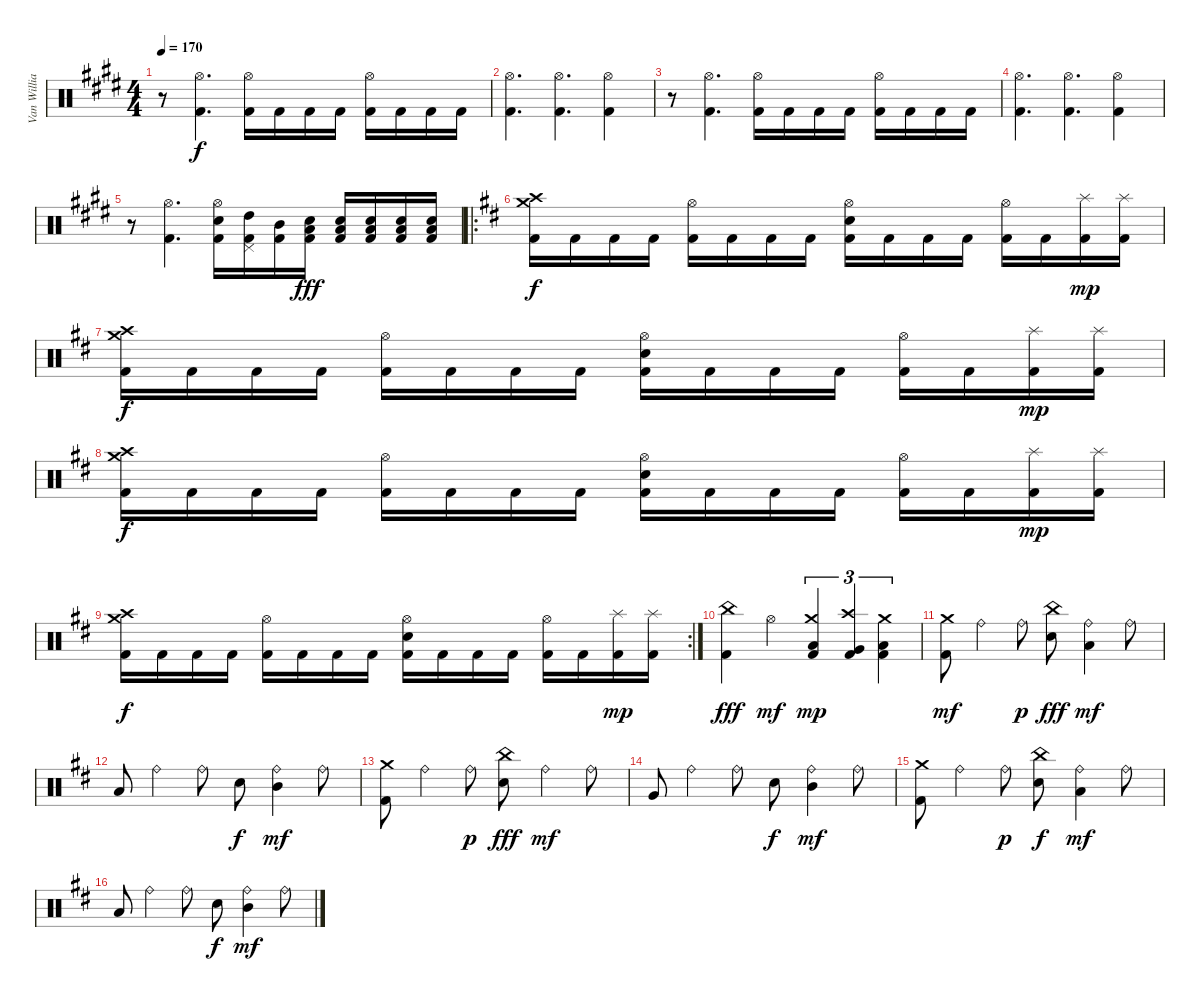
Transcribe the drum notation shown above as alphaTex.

\track ("Van Williams" "Van Willia") {instrument percussion}
\staff {score}
\articulation defaults
\ts (4 4)
\tempo 170
\clef neutral
\ks e
r.8{dy f} ("Hi-Hat (open)" "Kick (hit) 2").4{d} ("Hi-Hat (open)" "Kick (hit) 2").16 "Kick (hit) 2".16 "Kick (hit) 2".16 "Kick (hit) 2".16 ("Hi-Hat (open)" "Kick (hit) 2").16 "Kick (hit) 2".16 "Kick (hit) 2".16 "Kick (hit) 2".16 |
("Hi-Hat (open)" "Kick (hit) 2").4{d} ("Hi-Hat (open)" "Kick (hit) 2").4{d} ("Hi-Hat (open)" "Kick (hit) 2").4 |
r.8 ("Hi-Hat (open)" "Kick (hit) 2").4{d} ("Hi-Hat (open)" "Kick (hit) 2").16 "Kick (hit) 2".16 "Kick (hit) 2".16 "Kick (hit) 2".16 ("Hi-Hat (open)" "Kick (hit) 2").16 "Kick (hit) 2".16 "Kick (hit) 2".16 "Kick (hit) 2".16 |
("Hi-Hat (open)" "Kick (hit) 2").4{d} ("Hi-Hat (open)" "Kick (hit) 2").4{d} ("Hi-Hat (open)" "Kick (hit) 2").4 |
r.8 ("Hi-Hat (open)" "Kick (hit) 2").4{d} ("Hi-Hat (open)" "Electric Snare (hit)" "Kick (hit) 2").16 ("Pedal Hi-Hat (hit)" "High Tom (hit)" "Kick (hit) 2").16 ("Mid Tom (hit)" "Kick (hit) 2").16 ("Electric Snare (hit)" "Low Floor Tom (hit)" "Kick (hit) 2").16{dy fff} ("Electric Snare (hit)" "Low Floor Tom (hit)" "Kick (hit) 2").16 ("Electric Snare (hit)" "Low Floor Tom (hit)" "Kick (hit) 2").16 ("Electric Snare (hit)" "Low Floor Tom (hit)" "Kick (hit) 2").16 ("Electric Snare (hit)" "Low Floor Tom (hit)" "Kick (hit) 2").16 |
\ro
\ks d
("Crash medium (hit)" "Crash high (hit)" "Kick (hit) 2").16{dy f} "Kick (hit) 2".16 "Kick (hit) 2".16 "Kick (hit) 2".16 ("Hi-Hat (open)" "Kick (hit) 2").16 "Kick (hit) 2".16 "Kick (hit) 2".16 "Kick (hit) 2".16 ("Hi-Hat (open)" "Electric Snare (hit)" "Kick (hit) 2").16 "Kick (hit) 2".16 "Kick (hit) 2".16 "Kick (hit) 2".16 ("Hi-Hat (open)" "Kick (hit) 2").16 "Kick (hit) 2".16 ("Splash (hit)" "Kick (hit) 2").16{dy mp} ("Splash (hit)" "Kick (hit) 2").16 |
("Crash medium (hit)" "Crash high (hit)" "Kick (hit) 2").16{dy f} "Kick (hit) 2".16 "Kick (hit) 2".16 "Kick (hit) 2".16 ("Hi-Hat (open)" "Kick (hit) 2").16 "Kick (hit) 2".16 "Kick (hit) 2".16 "Kick (hit) 2".16 ("Hi-Hat (open)" "Electric Snare (hit)" "Kick (hit) 2").16 "Kick (hit) 2".16 "Kick (hit) 2".16 "Kick (hit) 2".16 ("Hi-Hat (open)" "Kick (hit) 2").16 "Kick (hit) 2".16 ("Splash (hit)" "Kick (hit) 2").16{dy mp} ("Splash (hit)" "Kick (hit) 2").16 |
("Crash medium (hit)" "Crash high (hit)" "Kick (hit) 2").16{dy f} "Kick (hit) 2".16 "Kick (hit) 2".16 "Kick (hit) 2".16 ("Hi-Hat (open)" "Kick (hit) 2").16 "Kick (hit) 2".16 "Kick (hit) 2".16 "Kick (hit) 2".16 ("Hi-Hat (open)" "Electric Snare (hit)" "Kick (hit) 2").16 "Kick (hit) 2".16 "Kick (hit) 2".16 "Kick (hit) 2".16 ("Hi-Hat (open)" "Kick (hit) 2").16 "Kick (hit) 2".16 ("Splash (hit)" "Kick (hit) 2").16{dy mp} ("Splash (hit)" "Kick (hit) 2").16 |
\rc 2
("Crash medium (hit)" "Crash high (hit)" "Kick (hit) 2").16{dy f} "Kick (hit) 2".16 "Kick (hit) 2".16 "Kick (hit) 2".16 ("Hi-Hat (open)" "Kick (hit) 2").16 "Kick (hit) 2".16 "Kick (hit) 2".16 "Kick (hit) 2".16 ("Hi-Hat (open)" "Electric Snare (hit)" "Kick (hit) 2").16 "Kick (hit) 2".16 "Kick (hit) 2".16 "Kick (hit) 2".16 ("Hi-Hat (open)" "Kick (hit) 2").16 "Kick (hit) 2".16 ("Splash (hit)" "Kick (hit) 2").16{dy mp} ("Splash (hit)" "Kick (hit) 2").16 |
("China (hit)" "Kick (hit) 2").4{dy fff} "Hi-Hat (open)".4{dy mf} ("Crash medium (hit)" "Low Tom (hit)" "Kick (hit) 2").4{tu (3 2) dy mp} ("Crash high (hit)" "Very Low Tom (hit)" "Kick (hit) 2").4{tu (3 2)} ("Crash medium (hit)" "Low Floor Tom (hit)" "Kick (hit) 2").4{tu (3 2)} |
("Crash medium (hit)" "Kick (hit) 2").8{dy mf} "Ride (bell)".4 "Ride (bell)".8{dy p} ("China (hit)" "Electric Snare (hit)").8{dy fff} ("Ride (bell)" "Low Tom (hit)").4{dy mf} "Ride (bell)".8 |
"Low Tom (hit)".8 "Ride (bell)".4 "Ride (bell)".8 "Electric Snare (hit)".8{dy f} ("Ride (bell)" "Mid Tom (hit)").4{dy mf} "Ride (bell)".8 |
("Crash medium (hit)" "Kick (hit) 2").8 "Ride (bell)".4 "Ride (bell)".8{dy p} ("China (hit)" "Electric Snare (hit)").8{dy fff} "Ride (bell)".4{dy mf} "Ride (bell)".8 |
"Very Low Tom (hit)".8 "Ride (bell)".4 "Ride (bell)".8 "Electric Snare (hit)".8{dy f} ("Ride (bell)" "Mid Tom (hit)").4{dy mf} "Ride (bell)".8 |
("Crash medium (hit)" "Kick (hit) 2").8 "Ride (bell)".4 "Ride (bell)".8{dy p} ("China (hit)" "Electric Snare (hit)").8{dy f} ("Ride (bell)" "Low Tom (hit)").4{dy mf} "Ride (bell)".8 |
"Low Tom (hit)".8 "Ride (bell)".4 "Ride (bell)".8 "Electric Snare (hit)".8{dy f} ("Ride (bell)" "Mid Tom (hit)").4{dy mf} "Ride (bell)".8
